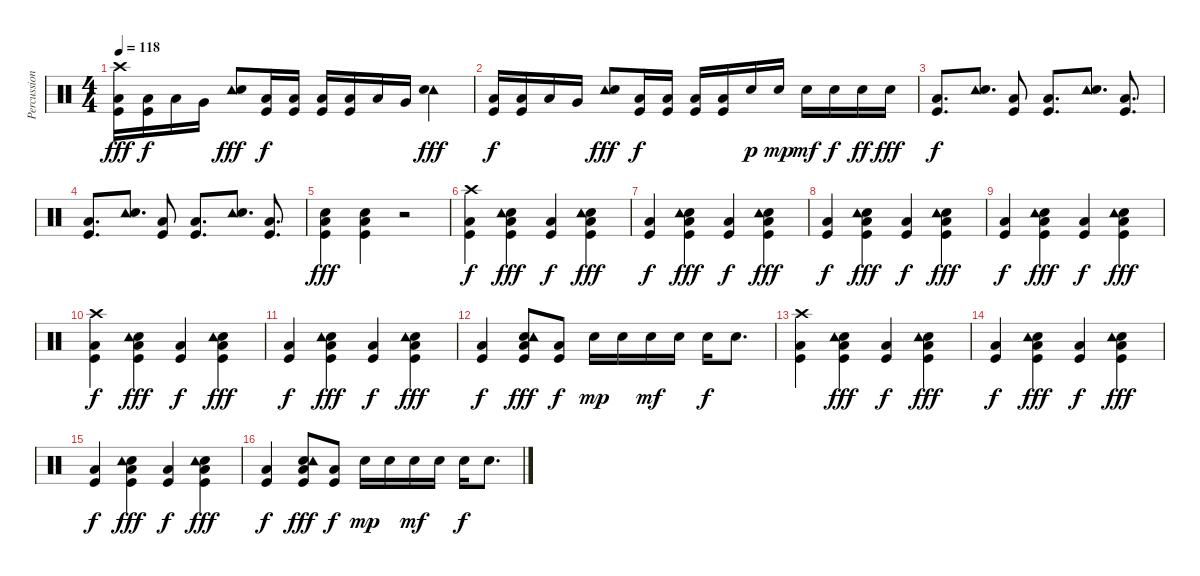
\track ("Percussion" "Percussion") {instrument percussion}
\staff {score}
\articulation defaults
\ts (4 4)
\tempo 118
\clef neutral
\ks c
("Crash high (hit)" "Low Floor Tom (hit)" "Kick (hit)").16{dy fff} ("Low Floor Tom (hit)" "Kick (hit)").16{dy f} "Low Tom (hit)".16 "Very Low Tom (hit)".16 ("Tambourine (hit)" "Snare (hit) 2").8{dy fff} ("Low Floor Tom (hit)" "Kick (hit)").16{dy f} ("Low Floor Tom (hit)" "Kick (hit)").16 ("Low Floor Tom (hit)" "Kick (hit)").16 ("Low Floor Tom (hit)" "Kick (hit)").16 "Low Tom (hit)".16 "Very Low Tom (hit)".16 ("Tambourine (hit)" "Snare (hit) 2").4{dy fff} |
("Low Floor Tom (hit)" "Kick (hit)").16{dy f} ("Low Floor Tom (hit)" "Kick (hit)").16 "Low Tom (hit)".16 "Very Low Tom (hit)".16 ("Tambourine (hit)" "Snare (hit) 2").8{dy fff} ("Low Floor Tom (hit)" "Kick (hit)").16{dy f} ("Low Floor Tom (hit)" "Kick (hit)").16 ("Low Floor Tom (hit)" "Kick (hit)").16 ("Low Floor Tom (hit)" "Kick (hit)").16 "Snare (hit) 2".16{dy p} "Snare (hit) 2".16{dy mp} "Snare (hit) 2".16{dy mf} "Snare (hit) 2".16{dy f} "Snare (hit) 2".16{dy ff} "Snare (hit) 2".16{dy fff} |
("Low Floor Tom (hit)" "Kick (hit)").8{d dy f} ("Tambourine (hit)" "Snare (hit) 2").8{d} ("Low Floor Tom (hit)" "Kick (hit)").8 ("Low Floor Tom (hit)" "Kick (hit)").8{d} ("Tambourine (hit)" "Snare (hit) 2").8{d} ("Kick (hit)" "Low Floor Tom (hit)").8{d} |
("Low Floor Tom (hit)" "Kick (hit)").8{d} ("Tambourine (hit)" "Snare (hit) 2").8{d} ("Low Floor Tom (hit)" "Kick (hit)").8 ("Low Floor Tom (hit)" "Kick (hit)").8{d} ("Tambourine (hit)" "Snare (hit) 2").8{d} ("Kick (hit)" "Low Floor Tom (hit)").8{d} |
("Low Floor Tom (hit)" "Kick (hit)" "Snare (hit) 2").4{dy fff} ("Low Floor Tom (hit)" "Kick (hit)" "Snare (hit) 2").4 r.2 |
("Crash high (hit)" "Kick (hit)" "Low Floor Tom (hit)").4{dy f} ("Snare (hit) 2" "Tambourine (hit)" "Kick (hit)" "Low Floor Tom (hit)").4{dy fff} ("Kick (hit)" "Low Floor Tom (hit)").4{dy f} ("Snare (hit) 2" "Tambourine (hit)" "Kick (hit)" "Low Floor Tom (hit)").4{dy fff} |
("Kick (hit)" "Low Floor Tom (hit)").4{dy f} ("Snare (hit) 2" "Tambourine (hit)" "Kick (hit)" "Low Floor Tom (hit)").4{dy fff} ("Kick (hit)" "Low Floor Tom (hit)").4{dy f} ("Snare (hit) 2" "Tambourine (hit)" "Kick (hit)" "Low Floor Tom (hit)").4{dy fff} |
("Kick (hit)" "Low Floor Tom (hit)").4{dy f} ("Snare (hit) 2" "Tambourine (hit)" "Kick (hit)" "Low Floor Tom (hit)").4{dy fff} ("Kick (hit)" "Low Floor Tom (hit)").4{dy f} ("Snare (hit) 2" "Tambourine (hit)" "Kick (hit)" "Low Floor Tom (hit)").4{dy fff} |
("Kick (hit)" "Low Floor Tom (hit)").4{dy f} ("Snare (hit) 2" "Tambourine (hit)" "Kick (hit)" "Low Floor Tom (hit)").4{dy fff} ("Kick (hit)" "Low Floor Tom (hit)").4{dy f} ("Snare (hit) 2" "Tambourine (hit)" "Kick (hit)" "Low Floor Tom (hit)").4{dy fff} |
("Crash high (hit)" "Kick (hit)" "Low Floor Tom (hit)").4{dy f} ("Snare (hit) 2" "Tambourine (hit)" "Kick (hit)" "Low Floor Tom (hit)").4{dy fff} ("Kick (hit)" "Low Floor Tom (hit)").4{dy f} ("Snare (hit) 2" "Tambourine (hit)" "Kick (hit)" "Low Floor Tom (hit)").4{dy fff} |
("Kick (hit)" "Low Floor Tom (hit)").4{dy f} ("Snare (hit) 2" "Tambourine (hit)" "Kick (hit)" "Low Floor Tom (hit)").4{dy fff} ("Kick (hit)" "Low Floor Tom (hit)").4{dy f} ("Snare (hit) 2" "Tambourine (hit)" "Kick (hit)" "Low Floor Tom (hit)").4{dy fff} |
("Kick (hit)" "Low Floor Tom (hit)").4{dy f} ("Snare (hit) 2" "Tambourine (hit)" "Kick (hit)" "Low Floor Tom (hit)").8{dy fff} ("Kick (hit)" "Low Floor Tom (hit)").8{dy f} "Snare (hit) 2".16{dy mp} "Snare (hit) 2".16 "Snare (hit) 2".16{dy mf} "Snare (hit) 2".16 "Snare (hit) 2".16{dy f} "Snare (hit) 2".8{d} |
("Crash high (hit)" "Kick (hit)" "Low Floor Tom (hit)").4 ("Snare (hit) 2" "Tambourine (hit)" "Kick (hit)" "Low Floor Tom (hit)").4{dy fff} ("Kick (hit)" "Low Floor Tom (hit)").4{dy f} ("Snare (hit) 2" "Tambourine (hit)" "Kick (hit)" "Low Floor Tom (hit)").4{dy fff} |
("Kick (hit)" "Low Floor Tom (hit)").4{dy f} ("Snare (hit) 2" "Tambourine (hit)" "Kick (hit)" "Low Floor Tom (hit)").4{dy fff} ("Kick (hit)" "Low Floor Tom (hit)").4{dy f} ("Snare (hit) 2" "Tambourine (hit)" "Kick (hit)" "Low Floor Tom (hit)").4{dy fff} |
("Kick (hit)" "Low Floor Tom (hit)").4{dy f} ("Snare (hit) 2" "Tambourine (hit)" "Kick (hit)" "Low Floor Tom (hit)").4{dy fff} ("Kick (hit)" "Low Floor Tom (hit)").4{dy f} ("Snare (hit) 2" "Tambourine (hit)" "Kick (hit)" "Low Floor Tom (hit)").4{dy fff} |
("Kick (hit)" "Low Floor Tom (hit)").4{dy f} ("Snare (hit) 2" "Tambourine (hit)" "Kick (hit)" "Low Floor Tom (hit)").8{dy fff} ("Kick (hit)" "Low Floor Tom (hit)").8{dy f} "Snare (hit) 2".16{dy mp} "Snare (hit) 2".16 "Snare (hit) 2".16{dy mf} "Snare (hit) 2".16 "Snare (hit) 2".16{dy f} "Snare (hit) 2".8{d}
